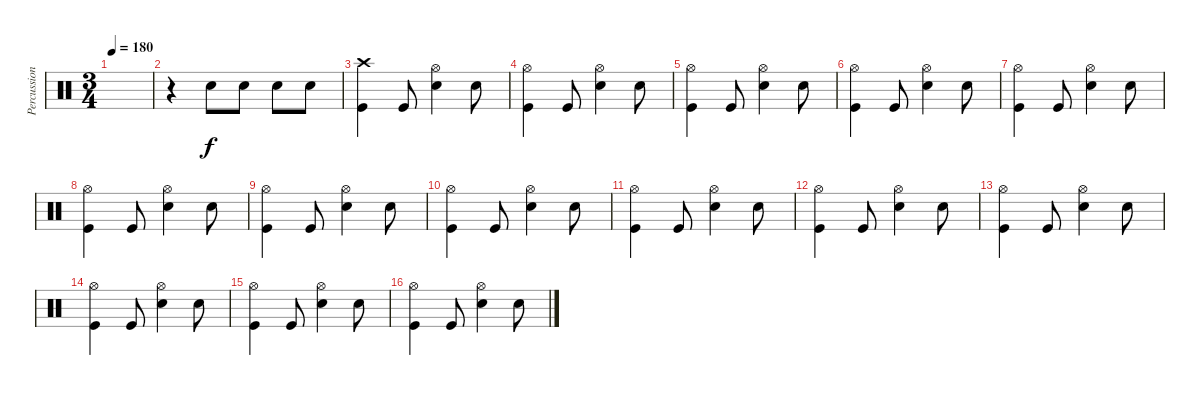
\track ("Percussion" "Percussion") {instrument percussion}
\staff {score}
\articulation defaults
\ts (3 4)
\tempo 180
\clef neutral
\ks c
|
r.4 "Snare (hit) 2".8 "Snare (hit) 2".8 "Snare (hit) 2".8 "Snare (hit) 2".8 |
("Crash high (hit)" "Kick (hit)").4 "Kick (hit)".8 ("Hi-Hat (open)" "Snare (hit) 2").4 "Snare (hit) 2".8 |
("Hi-Hat (open)" "Kick (hit)").4 "Kick (hit)".8 ("Hi-Hat (open)" "Snare (hit) 2").4 "Snare (hit) 2".8 |
("Hi-Hat (open)" "Kick (hit)").4 "Kick (hit)".8 ("Hi-Hat (open)" "Snare (hit) 2").4 "Snare (hit) 2".8 |
("Hi-Hat (open)" "Kick (hit)").4 "Kick (hit)".8 ("Hi-Hat (open)" "Snare (hit) 2").4 "Snare (hit) 2".8 |
("Hi-Hat (open)" "Kick (hit)").4 "Kick (hit)".8 ("Hi-Hat (open)" "Snare (hit) 2").4 "Snare (hit) 2".8 |
("Hi-Hat (open)" "Kick (hit)").4 "Kick (hit)".8 ("Hi-Hat (open)" "Snare (hit) 2").4 "Snare (hit) 2".8 |
("Hi-Hat (open)" "Kick (hit)").4 "Kick (hit)".8 ("Hi-Hat (open)" "Snare (hit) 2").4 "Snare (hit) 2".8 |
("Hi-Hat (open)" "Kick (hit)").4 "Kick (hit)".8 ("Hi-Hat (open)" "Snare (hit) 2").4 "Snare (hit) 2".8 |
("Hi-Hat (open)" "Kick (hit)").4 "Kick (hit)".8 ("Hi-Hat (open)" "Snare (hit) 2").4 "Snare (hit) 2".8 |
("Hi-Hat (open)" "Kick (hit)").4 "Kick (hit)".8 ("Hi-Hat (open)" "Snare (hit) 2").4 "Snare (hit) 2".8 |
("Hi-Hat (open)" "Kick (hit)").4 "Kick (hit)".8 ("Hi-Hat (open)" "Snare (hit) 2").4 "Snare (hit) 2".8 |
("Hi-Hat (open)" "Kick (hit)").4 "Kick (hit)".8 ("Hi-Hat (open)" "Snare (hit) 2").4 "Snare (hit) 2".8 |
("Hi-Hat (open)" "Kick (hit)").4 "Kick (hit)".8 ("Hi-Hat (open)" "Snare (hit) 2").4 "Snare (hit) 2".8 |
("Hi-Hat (open)" "Kick (hit)").4 "Kick (hit)".8 ("Hi-Hat (open)" "Snare (hit) 2").4 "Snare (hit) 2".8
